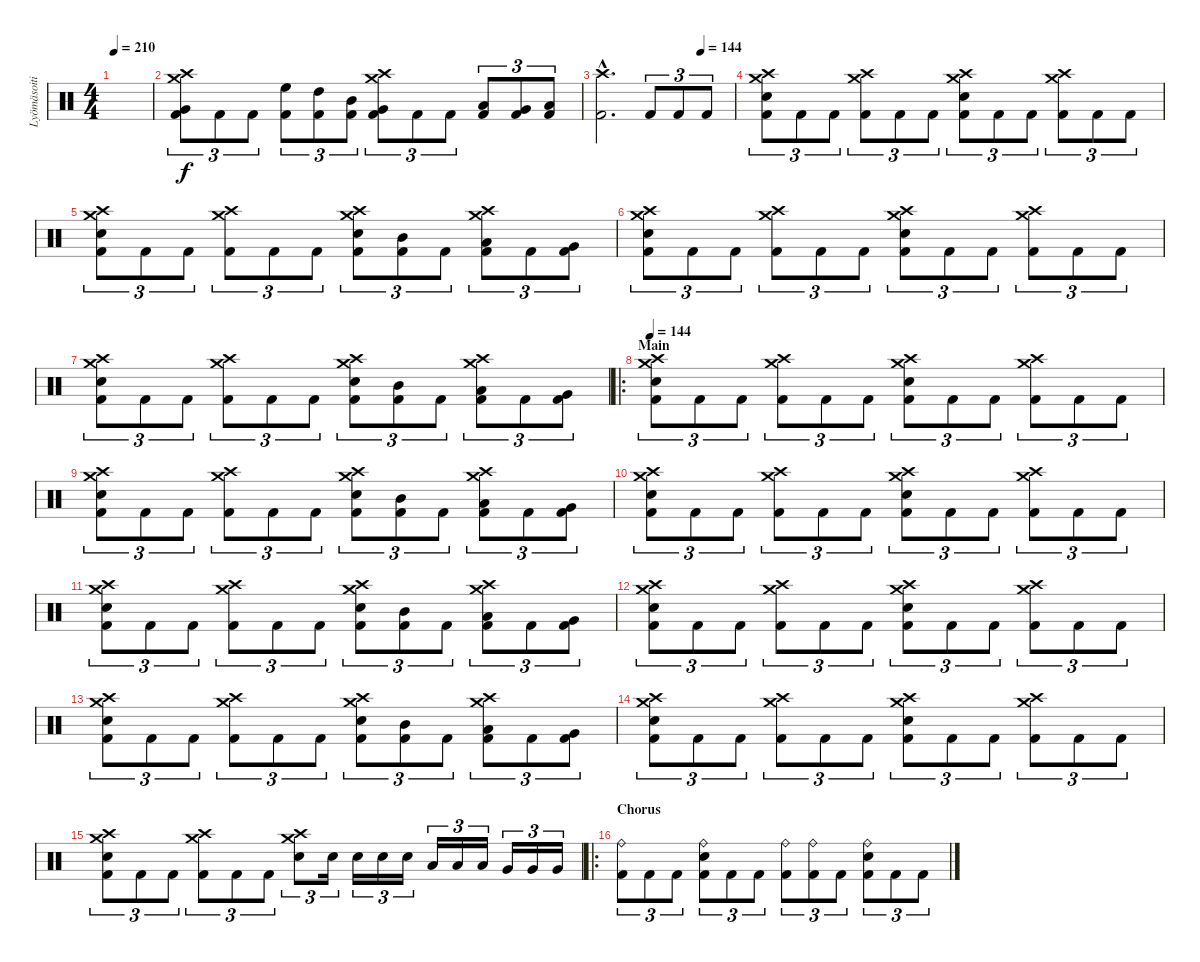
\track ("Lyömäsoitin" "Lyömäsoiti") {instrument percussion}
\staff {score}
\articulation defaults
\ts (4 4)
\tempo 210
\clef neutral
\ks c
|
("Crash high (hit)" "Crash medium (hit)" "Very Low Tom (hit)" "Kick (hit) 2").8{tu (3 2)} "Kick (hit) 2".8{tu (3 2)} "Kick (hit) 2".8{tu (3 2)} ("High Floor Tom (hit)" "Kick (hit) 2").8{tu (3 2)} ("High Tom (hit)" "Kick (hit) 2").8{tu (3 2)} ("Mid Tom (hit)" "Kick (hit) 2").8{tu (3 2)} ("Crash high (hit)" "Crash medium (hit)" "Very Low Tom (hit)" "Kick (hit) 2").8{tu (3 2)} "Kick (hit) 2".8{tu (3 2)} "Kick (hit) 2".8{tu (3 2)} ("Low Tom (hit)" "Kick (hit) 2").8{tu (3 2)} ("Very Low Tom (hit)" "Kick (hit) 2").8{tu (3 2)} ("Low Floor Tom (hit)" "Kick (hit) 2").8{tu (3 2)} |
\tempo (144 0.75)
("Crash high (hit)"{hac} "Kick (hit) 2"{hac}).2{d} "Kick (hit) 2".8{tu (3 2)} "Kick (hit) 2".8{tu (3 2)} "Kick (hit) 2".8{tu (3 2)} |
("Crash medium (hit)" "Crash high (hit)" "Snare (hit) 2" "Kick (hit) 2").8{tu (3 2)} "Kick (hit) 2".8{tu (3 2)} "Kick (hit) 2".8{tu (3 2)} ("Crash medium (hit)" "Crash high (hit)" "Kick (hit) 2").8{tu (3 2)} "Kick (hit) 2".8{tu (3 2)} "Kick (hit) 2".8{tu (3 2)} ("Crash medium (hit)" "Crash high (hit)" "Snare (hit) 2" "Kick (hit) 2").8{tu (3 2)} "Kick (hit) 2".8{tu (3 2)} "Kick (hit) 2".8{tu (3 2)} ("Crash medium (hit)" "Crash high (hit)" "Kick (hit) 2").8{tu (3 2)} "Kick (hit) 2".8{tu (3 2)} "Kick (hit) 2".8{tu (3 2)} |
("Crash medium (hit)" "Crash high (hit)" "Snare (hit) 2" "Kick (hit) 2").8{tu (3 2)} "Kick (hit) 2".8{tu (3 2)} "Kick (hit) 2".8{tu (3 2)} ("Crash medium (hit)" "Crash high (hit)" "Kick (hit) 2").8{tu (3 2)} "Kick (hit) 2".8{tu (3 2)} "Kick (hit) 2".8{tu (3 2)} ("Crash medium (hit)" "Crash high (hit)" "Snare (hit) 2" "Kick (hit) 2").8{tu (3 2)} ("Mid Tom (hit)" "Kick (hit) 2").8{tu (3 2)} "Kick (hit) 2".8{tu (3 2)} ("Crash medium (hit)" "Crash high (hit)" "Low Tom (hit)" "Kick (hit) 2").8{tu (3 2)} "Kick (hit) 2".8{tu (3 2)} ("Very Low Tom (hit)" "Kick (hit) 2").8{tu (3 2)} |
("Crash medium (hit)" "Crash high (hit)" "Snare (hit) 2" "Kick (hit) 2").8{tu (3 2)} "Kick (hit) 2".8{tu (3 2)} "Kick (hit) 2".8{tu (3 2)} ("Crash medium (hit)" "Crash high (hit)" "Kick (hit) 2").8{tu (3 2)} "Kick (hit) 2".8{tu (3 2)} "Kick (hit) 2".8{tu (3 2)} ("Crash medium (hit)" "Crash high (hit)" "Snare (hit) 2" "Kick (hit) 2").8{tu (3 2)} "Kick (hit) 2".8{tu (3 2)} "Kick (hit) 2".8{tu (3 2)} ("Crash medium (hit)" "Crash high (hit)" "Kick (hit) 2").8{tu (3 2)} "Kick (hit) 2".8{tu (3 2)} "Kick (hit) 2".8{tu (3 2)} |
("Crash medium (hit)" "Crash high (hit)" "Snare (hit) 2" "Kick (hit) 2").8{tu (3 2)} "Kick (hit) 2".8{tu (3 2)} "Kick (hit) 2".8{tu (3 2)} ("Crash medium (hit)" "Crash high (hit)" "Kick (hit) 2").8{tu (3 2)} "Kick (hit) 2".8{tu (3 2)} "Kick (hit) 2".8{tu (3 2)} ("Crash medium (hit)" "Crash high (hit)" "Snare (hit) 2" "Kick (hit) 2").8{tu (3 2)} ("Mid Tom (hit)" "Kick (hit) 2").8{tu (3 2)} "Kick (hit) 2".8{tu (3 2)} ("Crash medium (hit)" "Crash high (hit)" "Low Tom (hit)" "Kick (hit) 2").8{tu (3 2)} "Kick (hit) 2".8{tu (3 2)} ("Very Low Tom (hit)" "Kick (hit) 2").8{tu (3 2)} |
\ro
\section ("" "Main")
\tempo 144
("Crash medium (hit)" "Crash high (hit)" "Snare (hit) 2" "Kick (hit) 2").8{tu (3 2)} "Kick (hit) 2".8{tu (3 2)} "Kick (hit) 2".8{tu (3 2)} ("Crash medium (hit)" "Crash high (hit)" "Kick (hit) 2").8{tu (3 2)} "Kick (hit) 2".8{tu (3 2)} "Kick (hit) 2".8{tu (3 2)} ("Crash medium (hit)" "Crash high (hit)" "Snare (hit) 2" "Kick (hit) 2").8{tu (3 2)} "Kick (hit) 2".8{tu (3 2)} "Kick (hit) 2".8{tu (3 2)} ("Crash medium (hit)" "Crash high (hit)" "Kick (hit) 2").8{tu (3 2)} "Kick (hit) 2".8{tu (3 2)} "Kick (hit) 2".8{tu (3 2)} |
("Crash medium (hit)" "Crash high (hit)" "Snare (hit) 2" "Kick (hit) 2").8{tu (3 2)} "Kick (hit) 2".8{tu (3 2)} "Kick (hit) 2".8{tu (3 2)} ("Crash medium (hit)" "Crash high (hit)" "Kick (hit) 2").8{tu (3 2)} "Kick (hit) 2".8{tu (3 2)} "Kick (hit) 2".8{tu (3 2)} ("Crash medium (hit)" "Crash high (hit)" "Snare (hit) 2" "Kick (hit) 2").8{tu (3 2)} ("Mid Tom (hit)" "Kick (hit) 2").8{tu (3 2)} "Kick (hit) 2".8{tu (3 2)} ("Crash medium (hit)" "Crash high (hit)" "Low Tom (hit)" "Kick (hit) 2").8{tu (3 2)} "Kick (hit) 2".8{tu (3 2)} ("Very Low Tom (hit)" "Kick (hit) 2").8{tu (3 2)} |
("Crash medium (hit)" "Crash high (hit)" "Snare (hit) 2" "Kick (hit) 2").8{tu (3 2)} "Kick (hit) 2".8{tu (3 2)} "Kick (hit) 2".8{tu (3 2)} ("Crash medium (hit)" "Crash high (hit)" "Kick (hit) 2").8{tu (3 2)} "Kick (hit) 2".8{tu (3 2)} "Kick (hit) 2".8{tu (3 2)} ("Crash medium (hit)" "Crash high (hit)" "Snare (hit) 2" "Kick (hit) 2").8{tu (3 2)} "Kick (hit) 2".8{tu (3 2)} "Kick (hit) 2".8{tu (3 2)} ("Crash medium (hit)" "Crash high (hit)" "Kick (hit) 2").8{tu (3 2)} "Kick (hit) 2".8{tu (3 2)} "Kick (hit) 2".8{tu (3 2)} |
("Crash medium (hit)" "Crash high (hit)" "Snare (hit) 2" "Kick (hit) 2").8{tu (3 2)} "Kick (hit) 2".8{tu (3 2)} "Kick (hit) 2".8{tu (3 2)} ("Crash medium (hit)" "Crash high (hit)" "Kick (hit) 2").8{tu (3 2)} "Kick (hit) 2".8{tu (3 2)} "Kick (hit) 2".8{tu (3 2)} ("Crash medium (hit)" "Crash high (hit)" "Snare (hit) 2" "Kick (hit) 2").8{tu (3 2)} ("Mid Tom (hit)" "Kick (hit) 2").8{tu (3 2)} "Kick (hit) 2".8{tu (3 2)} ("Crash medium (hit)" "Crash high (hit)" "Low Tom (hit)" "Kick (hit) 2").8{tu (3 2)} "Kick (hit) 2".8{tu (3 2)} ("Very Low Tom (hit)" "Kick (hit) 2").8{tu (3 2)} |
("Crash medium (hit)" "Crash high (hit)" "Snare (hit) 2" "Kick (hit) 2").8{tu (3 2)} "Kick (hit) 2".8{tu (3 2)} "Kick (hit) 2".8{tu (3 2)} ("Crash medium (hit)" "Crash high (hit)" "Kick (hit) 2").8{tu (3 2)} "Kick (hit) 2".8{tu (3 2)} "Kick (hit) 2".8{tu (3 2)} ("Crash medium (hit)" "Crash high (hit)" "Snare (hit) 2" "Kick (hit) 2").8{tu (3 2)} "Kick (hit) 2".8{tu (3 2)} "Kick (hit) 2".8{tu (3 2)} ("Crash medium (hit)" "Crash high (hit)" "Kick (hit) 2").8{tu (3 2)} "Kick (hit) 2".8{tu (3 2)} "Kick (hit) 2".8{tu (3 2)} |
("Crash medium (hit)" "Crash high (hit)" "Snare (hit) 2" "Kick (hit) 2").8{tu (3 2)} "Kick (hit) 2".8{tu (3 2)} "Kick (hit) 2".8{tu (3 2)} ("Crash medium (hit)" "Crash high (hit)" "Kick (hit) 2").8{tu (3 2)} "Kick (hit) 2".8{tu (3 2)} "Kick (hit) 2".8{tu (3 2)} ("Crash medium (hit)" "Crash high (hit)" "Snare (hit) 2" "Kick (hit) 2").8{tu (3 2)} ("Mid Tom (hit)" "Kick (hit) 2").8{tu (3 2)} "Kick (hit) 2".8{tu (3 2)} ("Crash medium (hit)" "Crash high (hit)" "Low Tom (hit)" "Kick (hit) 2").8{tu (3 2)} "Kick (hit) 2".8{tu (3 2)} ("Very Low Tom (hit)" "Kick (hit) 2").8{tu (3 2)} |
("Crash medium (hit)" "Crash high (hit)" "Snare (hit) 2" "Kick (hit) 2").8{tu (3 2)} "Kick (hit) 2".8{tu (3 2)} "Kick (hit) 2".8{tu (3 2)} ("Crash medium (hit)" "Crash high (hit)" "Kick (hit) 2").8{tu (3 2)} "Kick (hit) 2".8{tu (3 2)} "Kick (hit) 2".8{tu (3 2)} ("Crash medium (hit)" "Crash high (hit)" "Snare (hit) 2" "Kick (hit) 2").8{tu (3 2)} "Kick (hit) 2".8{tu (3 2)} "Kick (hit) 2".8{tu (3 2)} ("Crash medium (hit)" "Crash high (hit)" "Kick (hit) 2").8{tu (3 2)} "Kick (hit) 2".8{tu (3 2)} "Kick (hit) 2".8{tu (3 2)} |
("Crash medium (hit)" "Crash high (hit)" "Snare (hit) 2" "Kick (hit) 2").8{tu (3 2)} "Kick (hit) 2".8{tu (3 2)} "Kick (hit) 2".8{tu (3 2)} ("Crash medium (hit)" "Crash high (hit)" "Kick (hit) 2").8{tu (3 2)} "Kick (hit) 2".8{tu (3 2)} "Kick (hit) 2".8{tu (3 2)} ("Crash medium (hit)" "Crash high (hit)" "Snare (hit) 2").8{tu (3 2)} "Snare (hit) 2".16{tu (3 2)} "Snare (hit) 2".16{tu (3 2)} "Snare (hit) 2".16{tu (3 2)} "Snare (hit) 2".16{tu (3 2)} "Low Tom (hit)".16{tu (3 2)} "Low Tom (hit)".16{tu (3 2)} "Low Tom (hit)".16{tu (3 2)} "Very Low Tom (hit)".16{tu (3 2)} "Very Low Tom (hit)".16{tu (3 2)} "Very Low Tom (hit)".16{tu (3 2)} |
\ro
\section ("" "Chorus")
("Ride (bell)" "Kick (hit) 2").8{tu (3 2)} "Kick (hit) 2".8{tu (3 2)} "Kick (hit) 2".8{tu (3 2)} ("Ride (bell)" "Snare (hit) 2" "Kick (hit) 2").8{tu (3 2)} "Kick (hit) 2".8{tu (3 2)} "Kick (hit) 2".8{tu (3 2)} ("Ride (bell)" "Kick (hit) 2").8{tu (3 2)} ("Ride (bell)" "Kick (hit) 2").8{tu (3 2)} "Kick (hit) 2".8{tu (3 2)} ("Ride (bell)" "Snare (hit) 2" "Kick (hit) 2").8{tu (3 2)} "Kick (hit) 2".8{tu (3 2)} "Kick (hit) 2".8{tu (3 2)}
